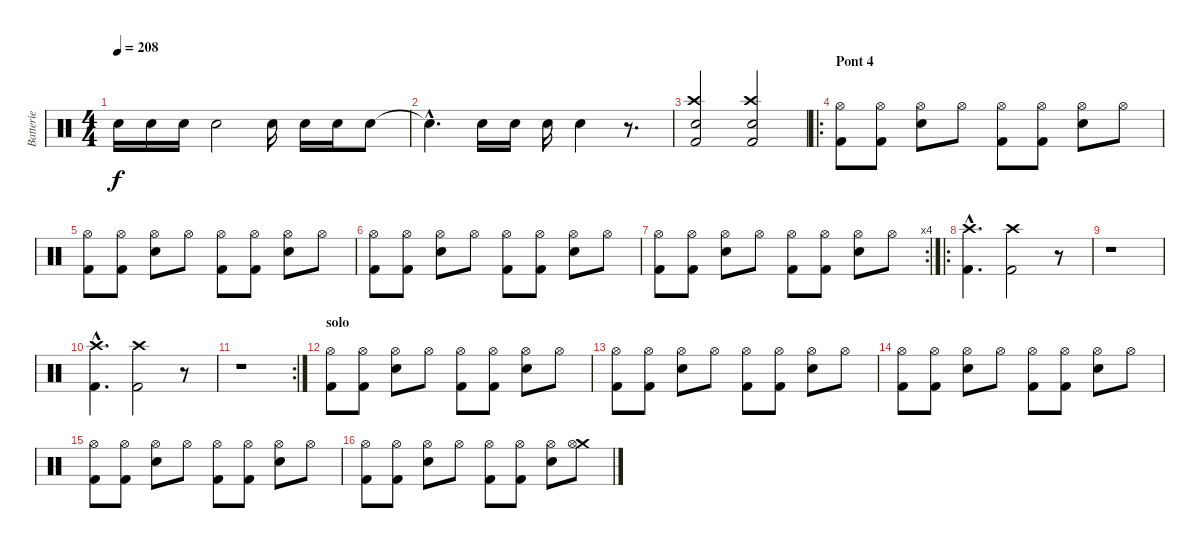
\track ("Batterie" "Batterie") {instrument percussion}
\staff {score}
\articulation defaults
\ts (4 4)
\tempo 208
\clef neutral
\ks c "Snare (hit) 2".16{dy f} "Snare (hit) 2".16 "Snare (hit) 2".16 "Snare (hit) 2".2 "Snare (hit) 2".16 "Snare (hit) 2".16 "Snare (hit) 2".16 "Snare (hit) 2".8
|
"Snare (hit) 2"{hac t}.4{d} "Snare (hit) 2".16 "Snare (hit) 2".16 "Snare (hit) 2".16 "Snare (hit) 2".4 r.8{d} |
("Crash high (hit)" "Snare (hit) 2" "Kick (hit) 2").2 ("Crash high (hit)" "Snare (hit) 2" "Kick (hit) 2").2 |
\ro
\section ("" "Pont 4")
("Hi-Hat (open)" "Kick (hit) 2").8 ("Hi-Hat (open)" "Kick (hit) 2").8 ("Hi-Hat (open)" "Snare (hit) 2").8 "Hi-Hat (open)".8 ("Hi-Hat (open)" "Kick (hit) 2").8 ("Hi-Hat (open)" "Kick (hit) 2").8 ("Hi-Hat (open)" "Snare (hit) 2").8 "Hi-Hat (open)".8 |
("Hi-Hat (open)" "Kick (hit) 2").8 ("Hi-Hat (open)" "Kick (hit) 2").8 ("Hi-Hat (open)" "Snare (hit) 2").8 "Hi-Hat (open)".8 ("Hi-Hat (open)" "Kick (hit) 2").8 ("Hi-Hat (open)" "Kick (hit) 2").8 ("Hi-Hat (open)" "Snare (hit) 2").8 "Hi-Hat (open)".8 |
("Hi-Hat (open)" "Kick (hit) 2").8 ("Hi-Hat (open)" "Kick (hit) 2").8 ("Hi-Hat (open)" "Snare (hit) 2").8 "Hi-Hat (open)".8 ("Hi-Hat (open)" "Kick (hit) 2").8 ("Hi-Hat (open)" "Kick (hit) 2").8 ("Hi-Hat (open)" "Snare (hit) 2").8 "Hi-Hat (open)".8 |
\rc 4
("Hi-Hat (open)" "Kick (hit) 2").8 ("Hi-Hat (open)" "Kick (hit) 2").8 ("Hi-Hat (open)" "Snare (hit) 2").8 "Hi-Hat (open)".8 ("Hi-Hat (open)" "Kick (hit) 2").8 ("Hi-Hat (open)" "Kick (hit) 2").8 ("Hi-Hat (open)" "Snare (hit) 2").8 "Hi-Hat (open)".8 |
\ro
("Crash high (hit)"{hac} "Kick (hit) 2"{hac}).4{d} ("Crash high (hit)" "Kick (hit) 2").2 r.8 |
r.1 |
("Crash high (hit)"{hac} "Kick (hit) 2"{hac}).4{d} ("Crash high (hit)" "Kick (hit) 2").2 r.8 |
\rc 2
r.1 |
\section ("" "solo")
("Hi-Hat (open)" "Kick (hit) 2").8 ("Hi-Hat (open)" "Kick (hit) 2").8 ("Hi-Hat (open)" "Snare (hit) 2").8 "Hi-Hat (open)".8 ("Hi-Hat (open)" "Kick (hit) 2").8 ("Hi-Hat (open)" "Kick (hit) 2").8 ("Hi-Hat (open)" "Snare (hit) 2").8 "Hi-Hat (open)".8 |
("Hi-Hat (open)" "Kick (hit) 2").8 ("Hi-Hat (open)" "Kick (hit) 2").8 ("Hi-Hat (open)" "Snare (hit) 2").8 "Hi-Hat (open)".8 ("Hi-Hat (open)" "Kick (hit) 2").8 ("Hi-Hat (open)" "Kick (hit) 2").8 ("Hi-Hat (open)" "Snare (hit) 2").8 "Hi-Hat (open)".8 |
("Hi-Hat (open)" "Kick (hit) 2").8 ("Hi-Hat (open)" "Kick (hit) 2").8 ("Hi-Hat (open)" "Snare (hit) 2").8 "Hi-Hat (open)".8 ("Hi-Hat (open)" "Kick (hit) 2").8 ("Hi-Hat (open)" "Kick (hit) 2").8 ("Hi-Hat (open)" "Snare (hit) 2").8 "Hi-Hat (open)".8 |
("Hi-Hat (open)" "Kick (hit) 2").8 ("Hi-Hat (open)" "Kick (hit) 2").8 ("Hi-Hat (open)" "Snare (hit) 2").8 "Hi-Hat (open)".8 ("Hi-Hat (open)" "Kick (hit) 2").8 ("Hi-Hat (open)" "Kick (hit) 2").8 ("Hi-Hat (open)" "Snare (hit) 2").8 "Hi-Hat (open)".8 |
("Hi-Hat (open)" "Kick (hit) 2").8 ("Hi-Hat (open)" "Kick (hit) 2").8 ("Hi-Hat (open)" "Snare (hit) 2").8 "Hi-Hat (open)".8 ("Hi-Hat (open)" "Kick (hit) 2").8 ("Hi-Hat (open)" "Kick (hit) 2").8 ("Hi-Hat (open)" "Snare (hit) 2").8 ("Crash medium (hit)" "Hi-Hat (open)").8
